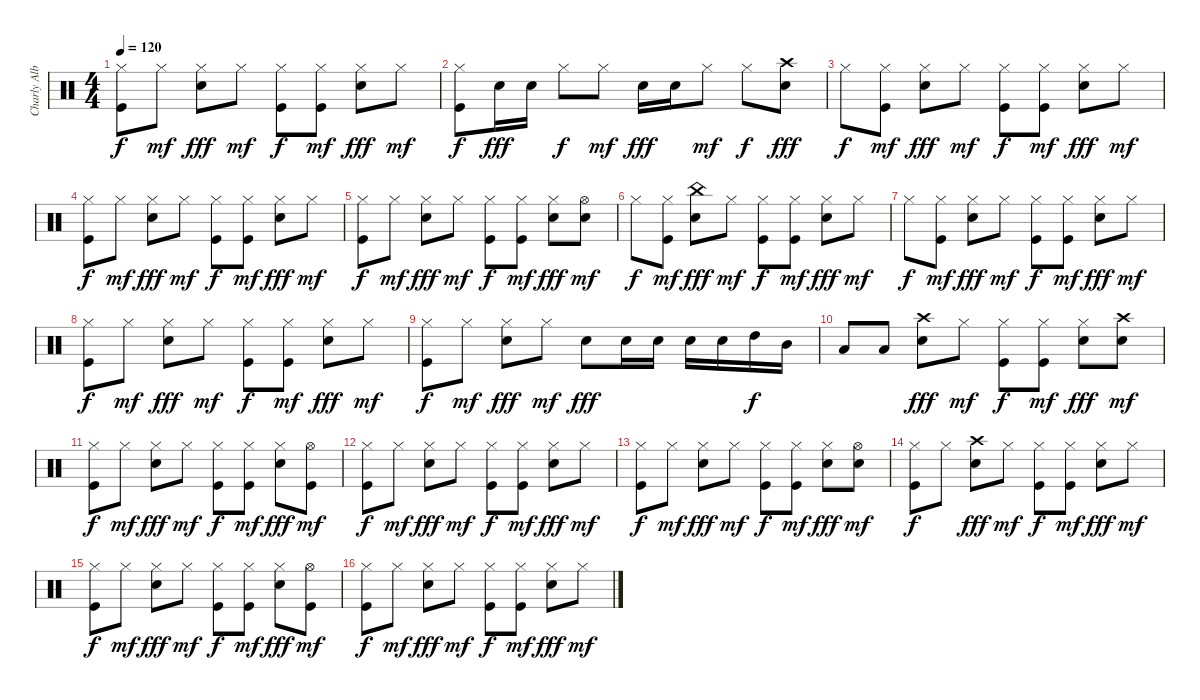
\track ("Charly Alberti" "Charly Alb") {instrument percussion}
\staff {score}
\articulation defaults
\ts (4 4)
\tempo 120
\clef neutral
\ks c
("Kick (hit)" "Hi-Hat (closed)").8{dy f} "Hi-Hat (closed)".8{dy mf} ("Snare (hit) 2" "Hi-Hat (closed)").8{dy fff} "Hi-Hat (closed)".8{dy mf} ("Kick (hit)" "Hi-Hat (closed)").8{dy f} ("Kick (hit)" "Hi-Hat (closed)").8{dy mf} ("Snare (hit) 2" "Hi-Hat (closed)").8{dy fff} "Hi-Hat (closed)".8{dy mf} |
("Kick (hit)" "Hi-Hat (closed)").8{dy f} "Snare (hit) 2".16{dy fff} "Snare (hit) 2".16 "Hi-Hat (closed)".8{dy f} "Hi-Hat (closed)".8{dy mf} "Snare (hit) 2".16{dy fff} "Snare (hit) 2".16 "Hi-Hat (closed)".8{dy mf} "Hi-Hat (closed)".8{dy f} ("Snare (hit) 2" "Crash high (hit)").8{dy fff} |
"Hi-Hat (closed)".8{dy f} ("Kick (hit)" "Hi-Hat (closed)").8{dy mf} ("Snare (hit) 2" "Hi-Hat (closed)").8{dy fff} "Hi-Hat (closed)".8{dy mf} ("Kick (hit)" "Hi-Hat (closed)").8{dy f} ("Kick (hit)" "Hi-Hat (closed)").8{dy mf} ("Snare (hit) 2" "Hi-Hat (closed)").8{dy fff} "Hi-Hat (closed)".8{dy mf} |
("Kick (hit)" "Hi-Hat (closed)").8{dy f} "Hi-Hat (closed)".8{dy mf} ("Snare (hit) 2" "Hi-Hat (closed)").8{dy fff} "Hi-Hat (closed)".8{dy mf} ("Kick (hit)" "Hi-Hat (closed)").8{dy f} ("Kick (hit)" "Hi-Hat (closed)").8{dy mf} ("Snare (hit) 2" "Hi-Hat (closed)").8{dy fff} "Hi-Hat (closed)".8{dy mf} |
("Kick (hit)" "Hi-Hat (closed)").8{dy f} "Hi-Hat (closed)".8{dy mf} ("Snare (hit) 2" "Hi-Hat (closed)").8{dy fff} "Hi-Hat (closed)".8{dy mf} ("Kick (hit)" "Hi-Hat (closed)").8{dy f} ("Kick (hit)" "Hi-Hat (closed)").8{dy mf} ("Snare (hit) 2" "Hi-Hat (closed)").8{dy fff} ("Snare (hit) 2" "Hi-Hat (open)").8{dy mf} |
"Hi-Hat (closed)".8{dy f} ("Kick (hit)" "Hi-Hat (closed)").8{dy mf} ("Snare (hit) 2" "China (hit)").8{dy fff} "Hi-Hat (closed)".8{dy mf} ("Kick (hit)" "Hi-Hat (closed)").8{dy f} ("Kick (hit)" "Hi-Hat (closed)").8{dy mf} ("Snare (hit) 2" "Hi-Hat (closed)").8{dy fff} "Hi-Hat (closed)".8{dy mf} |
"Hi-Hat (closed)".8{dy f} ("Kick (hit)" "Hi-Hat (closed)").8{dy mf} ("Snare (hit) 2" "Hi-Hat (closed)").8{dy fff} "Hi-Hat (closed)".8{dy mf} ("Kick (hit)" "Hi-Hat (closed)").8{dy f} ("Kick (hit)" "Hi-Hat (closed)").8{dy mf} ("Snare (hit) 2" "Hi-Hat (closed)").8{dy fff} "Hi-Hat (closed)".8{dy mf} |
("Kick (hit)" "Hi-Hat (closed)").8{dy f} "Hi-Hat (closed)".8{dy mf} ("Snare (hit) 2" "Hi-Hat (closed)").8{dy fff} "Hi-Hat (closed)".8{dy mf} ("Kick (hit)" "Hi-Hat (closed)").8{dy f} ("Kick (hit)" "Hi-Hat (closed)").8{dy mf} ("Snare (hit) 2" "Hi-Hat (closed)").8{dy fff} "Hi-Hat (closed)".8{dy mf} |
("Kick (hit)" "Hi-Hat (closed)").8{dy f} "Hi-Hat (closed)".8{dy mf} ("Snare (hit) 2" "Hi-Hat (closed)").8{dy fff} "Hi-Hat (closed)".8{dy mf} "Snare (hit) 2".8{dy fff} "Snare (hit) 2".16 "Snare (hit) 2".16 "Snare (hit) 2".16 "Snare (hit) 2".16 "High Tom (hit)".16{dy f} "Mid Tom (hit)".16 |
"Low Tom (hit)".8 "Low Floor Tom (hit)".8 ("Snare (hit) 2" "Crash high (hit)").8{dy fff} "Hi-Hat (closed)".8{dy mf} ("Kick (hit)" "Hi-Hat (closed)").8{dy f} ("Kick (hit)" "Hi-Hat (closed)").8{dy mf} ("Snare (hit) 2" "Hi-Hat (closed)").8{dy fff} ("Snare (hit) 2" "Crash high (hit)").8{dy mf} |
("Kick (hit)" "Hi-Hat (closed)").8{dy f} "Hi-Hat (closed)".8{dy mf} ("Snare (hit) 2" "Hi-Hat (closed)").8{dy fff} "Hi-Hat (closed)".8{dy mf} ("Kick (hit)" "Hi-Hat (closed)").8{dy f} ("Kick (hit)" "Hi-Hat (closed)").8{dy mf} ("Snare (hit) 2" "Hi-Hat (closed)").8{dy fff} ("Kick (hit)" "Hi-Hat (open)").8{dy mf} |
("Kick (hit)" "Hi-Hat (closed)").8{dy f} "Hi-Hat (closed)".8{dy mf} ("Snare (hit) 2" "Hi-Hat (closed)").8{dy fff} "Hi-Hat (closed)".8{dy mf} ("Kick (hit)" "Hi-Hat (closed)").8{dy f} ("Kick (hit)" "Hi-Hat (closed)").8{dy mf} ("Snare (hit) 2" "Hi-Hat (closed)").8{dy fff} "Hi-Hat (closed)".8{dy mf} |
("Kick (hit)" "Hi-Hat (closed)").8{dy f} "Hi-Hat (closed)".8{dy mf} ("Snare (hit) 2" "Hi-Hat (closed)").8{dy fff} "Hi-Hat (closed)".8{dy mf} ("Kick (hit)" "Hi-Hat (closed)").8{dy f} ("Kick (hit)" "Hi-Hat (closed)").8{dy mf} ("Snare (hit) 2" "Hi-Hat (closed)").8{dy fff} ("Snare (hit) 2" "Hi-Hat (open)").8{dy mf} |
("Kick (hit)" "Hi-Hat (closed)").8{dy f} "Hi-Hat (closed)".8 ("Snare (hit) 2" "Crash high (hit)").8{dy fff} "Hi-Hat (closed)".8{dy mf} ("Kick (hit)" "Hi-Hat (closed)").8{dy f} ("Kick (hit)" "Hi-Hat (closed)").8{dy mf} ("Snare (hit) 2" "Hi-Hat (closed)").8{dy fff} "Hi-Hat (closed)".8{dy mf} |
("Kick (hit)" "Hi-Hat (closed)").8{dy f} "Hi-Hat (closed)".8{dy mf} ("Snare (hit) 2" "Hi-Hat (closed)").8{dy fff} "Hi-Hat (closed)".8{dy mf} ("Kick (hit)" "Hi-Hat (closed)").8{dy f} ("Kick (hit)" "Hi-Hat (closed)").8{dy mf} ("Snare (hit) 2" "Hi-Hat (closed)").8{dy fff} ("Kick (hit)" "Hi-Hat (open)").8{dy mf} |
("Kick (hit)" "Hi-Hat (closed)").8{dy f} "Hi-Hat (closed)".8{dy mf} ("Snare (hit) 2" "Hi-Hat (closed)").8{dy fff} "Hi-Hat (closed)".8{dy mf} ("Kick (hit)" "Hi-Hat (closed)").8{dy f} ("Kick (hit)" "Hi-Hat (closed)").8{dy mf} ("Snare (hit) 2" "Hi-Hat (closed)").8{dy fff} "Hi-Hat (closed)".8{dy mf}
